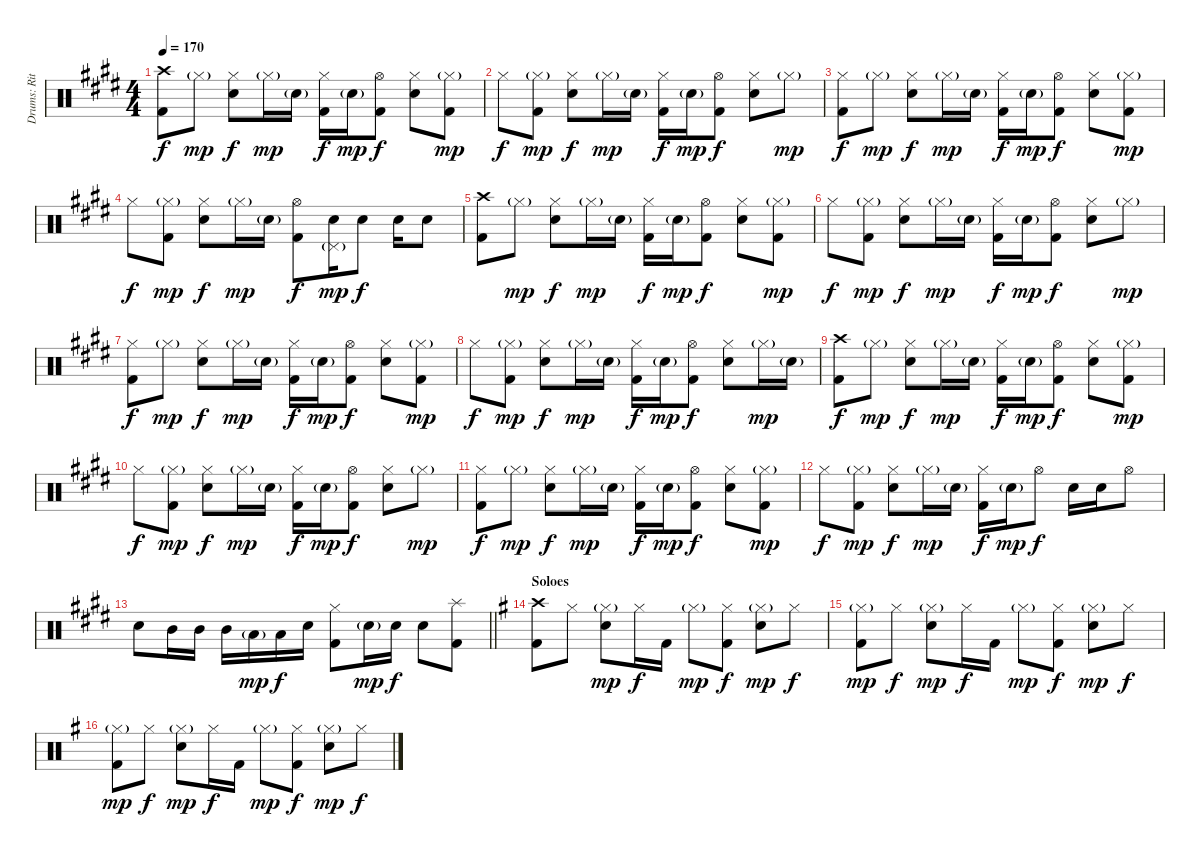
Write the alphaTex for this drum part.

\track ("Drums: Ritsu Tainaka" "Drums: Rit") {instrument percussion}
\staff {score}
\articulation defaults
\ts (4 4)
\tempo 170
\clef neutral
\ks e
("Crash high (hit)" "Kick (hit) 2").8{dy f} "Hi-Hat (closed)"{g}.8{dy mp} ("Hi-Hat (closed)" "Electric Snare (hit)").8{dy f} "Hi-Hat (closed)"{g}.16{dy mp} "Electric Snare (hit)"{g}.16 ("Hi-Hat (closed)" "Kick (hit) 2").16{dy f} "Electric Snare (hit)"{g}.16{dy mp} ("Hi-Hat (open)" "Kick (hit) 2").8{dy f} ("Hi-Hat (closed)" "Electric Snare (hit)").8 ("Hi-Hat (closed)"{g} "Kick (hit) 2").8{dy mp} |
"Hi-Hat (closed)".8{dy f} ("Hi-Hat (closed)"{g} "Kick (hit) 2").8{dy mp} ("Hi-Hat (closed)" "Electric Snare (hit)").8{dy f} "Hi-Hat (closed)"{g}.16{dy mp} "Electric Snare (hit)"{g}.16 ("Hi-Hat (closed)" "Kick (hit) 2").16{dy f} "Electric Snare (hit)"{g}.16{dy mp} ("Hi-Hat (open)" "Kick (hit) 2").8{dy f} ("Hi-Hat (closed)" "Electric Snare (hit)").8 "Hi-Hat (closed)"{g}.8{dy mp} |
("Hi-Hat (closed)" "Kick (hit) 2").8{dy f} "Hi-Hat (closed)"{g}.8{dy mp} ("Hi-Hat (closed)" "Electric Snare (hit)").8{dy f} "Hi-Hat (closed)"{g}.16{dy mp} "Electric Snare (hit)"{g}.16 ("Hi-Hat (closed)" "Kick (hit) 2").16{dy f} "Electric Snare (hit)"{g}.16{dy mp} ("Hi-Hat (open)" "Kick (hit) 2").8{dy f} ("Hi-Hat (closed)" "Electric Snare (hit)").8 ("Hi-Hat (closed)"{g} "Kick (hit) 2").8{dy mp} |
"Hi-Hat (closed)".8{dy f} ("Hi-Hat (closed)"{g} "Kick (hit) 2").8{dy mp} ("Hi-Hat (closed)" "Electric Snare (hit)").8{dy f} "Hi-Hat (closed)"{g}.16{dy mp} "Electric Snare (hit)"{g}.16 ("Hi-Hat (open)" "Kick (hit) 2").8{dy f} ("Pedal Hi-Hat (hit)"{g} "Electric Snare (hit)").16{dy mp} "Electric Snare (hit)".8{dy f} "Electric Snare (hit)".16 "Electric Snare (hit)".8 |
("Crash high (hit)" "Kick (hit) 2").8 "Hi-Hat (closed)"{g}.8{dy mp} ("Hi-Hat (closed)" "Electric Snare (hit)").8{dy f} "Hi-Hat (closed)"{g}.16{dy mp} "Electric Snare (hit)"{g}.16 ("Hi-Hat (closed)" "Kick (hit) 2").16{dy f} "Electric Snare (hit)"{g}.16{dy mp} ("Hi-Hat (open)" "Kick (hit) 2").8{dy f} ("Hi-Hat (closed)" "Electric Snare (hit)").8 ("Hi-Hat (closed)"{g} "Kick (hit) 2").8{dy mp} |
"Hi-Hat (closed)".8{dy f} ("Hi-Hat (closed)"{g} "Kick (hit) 2").8{dy mp} ("Hi-Hat (closed)" "Electric Snare (hit)").8{dy f} "Hi-Hat (closed)"{g}.16{dy mp} "Electric Snare (hit)"{g}.16 ("Hi-Hat (closed)" "Kick (hit) 2").16{dy f} "Electric Snare (hit)"{g}.16{dy mp} ("Hi-Hat (open)" "Kick (hit) 2").8{dy f} ("Hi-Hat (closed)" "Electric Snare (hit)").8 "Hi-Hat (closed)"{g}.8{dy mp} |
("Hi-Hat (closed)" "Kick (hit) 2").8{dy f} "Hi-Hat (closed)"{g}.8{dy mp} ("Hi-Hat (closed)" "Electric Snare (hit)").8{dy f} "Hi-Hat (closed)"{g}.16{dy mp} "Electric Snare (hit)"{g}.16 ("Hi-Hat (closed)" "Kick (hit) 2").16{dy f} "Electric Snare (hit)"{g}.16{dy mp} ("Hi-Hat (open)" "Kick (hit) 2").8{dy f} ("Hi-Hat (closed)" "Electric Snare (hit)").8 ("Hi-Hat (closed)"{g} "Kick (hit) 2").8{dy mp} |
"Hi-Hat (closed)".8{dy f} ("Hi-Hat (closed)"{g} "Kick (hit) 2").8{dy mp} ("Hi-Hat (closed)" "Electric Snare (hit)").8{dy f} "Hi-Hat (closed)"{g}.16{dy mp} "Electric Snare (hit)"{g}.16 ("Hi-Hat (closed)" "Kick (hit) 2").16{dy f} "Electric Snare (hit)"{g}.16{dy mp} ("Hi-Hat (open)" "Kick (hit) 2").8{dy f} ("Hi-Hat (closed)" "Electric Snare (hit)").8 "Hi-Hat (closed)"{g}.16{dy mp} "Electric Snare (hit)"{g}.16 |
("Crash high (hit)" "Kick (hit) 2").8{dy f} "Hi-Hat (closed)"{g}.8{dy mp} ("Hi-Hat (closed)" "Electric Snare (hit)").8{dy f} "Hi-Hat (closed)"{g}.16{dy mp} "Electric Snare (hit)"{g}.16 ("Hi-Hat (closed)" "Kick (hit) 2").16{dy f} "Electric Snare (hit)"{g}.16{dy mp} ("Hi-Hat (open)" "Kick (hit) 2").8{dy f} ("Hi-Hat (closed)" "Electric Snare (hit)").8 ("Hi-Hat (closed)"{g} "Kick (hit) 2").8{dy mp} |
"Hi-Hat (closed)".8{dy f} ("Hi-Hat (closed)"{g} "Kick (hit) 2").8{dy mp} ("Hi-Hat (closed)" "Electric Snare (hit)").8{dy f} "Hi-Hat (closed)"{g}.16{dy mp} "Electric Snare (hit)"{g}.16 ("Hi-Hat (closed)" "Kick (hit) 2").16{dy f} "Electric Snare (hit)"{g}.16{dy mp} ("Hi-Hat (open)" "Kick (hit) 2").8{dy f} ("Hi-Hat (closed)" "Electric Snare (hit)").8 "Hi-Hat (closed)"{g}.8{dy mp} |
("Hi-Hat (closed)" "Kick (hit) 2").8{dy f} "Hi-Hat (closed)"{g}.8{dy mp} ("Hi-Hat (closed)" "Electric Snare (hit)").8{dy f} "Hi-Hat (closed)"{g}.16{dy mp} "Electric Snare (hit)"{g}.16 ("Hi-Hat (closed)" "Kick (hit) 2").16{dy f} "Electric Snare (hit)"{g}.16{dy mp} ("Hi-Hat (open)" "Kick (hit) 2").8{dy f} ("Hi-Hat (closed)" "Electric Snare (hit)").8 ("Hi-Hat (closed)"{g} "Kick (hit) 2").8{dy mp} |
"Hi-Hat (closed)".8{dy f} ("Hi-Hat (closed)"{g} "Kick (hit) 2").8{dy mp} ("Hi-Hat (closed)" "Electric Snare (hit)").8{dy f} "Hi-Hat (closed)"{g}.16{dy mp} "Electric Snare (hit)"{g}.16 ("Hi-Hat (closed)" "Kick (hit) 2").16{dy f} "Electric Snare (hit)"{g}.16{dy mp} "Hi-Hat (open)".8{dy f} "Electric Snare (hit)".16 "Electric Snare (hit)".16 "Hi-Hat (open)".8 |
\barLineRight lightlight "Electric Snare (hit)".8 "Mid Tom (hit)".16 "Mid Tom (hit)".16 "Mid Tom (hit)".16 "Low Tom (hit)"{g}.16{dy mp} "Low Tom (hit)".16{dy f} "Electric Snare (hit)".16
("Hi-Hat (closed)" "Kick (hit) 2").8 "Electric Snare (hit)"{g}.16{dy mp} "Electric Snare (hit)".16{dy f} "Electric Snare (hit)".8 ("Splash (hit)" "Kick (hit) 2").8 |
\section ("" "Soloes")
\ks g
("Crash high (hit)" "Kick (hit) 2").8 "Hi-Hat (closed)".8 ("Hi-Hat (closed)"{g} "Electric Snare (hit)").8{dy mp} "Hi-Hat (closed)".16{dy f} "Kick (hit) 2".16 "Hi-Hat (closed)"{g}.8{dy mp} ("Hi-Hat (closed)" "Kick (hit) 2").8{dy f} ("Hi-Hat (closed)"{g} "Electric Snare (hit)").8{dy mp} "Hi-Hat (closed)".8{dy f} |
("Hi-Hat (closed)"{g} "Kick (hit) 2").8{dy mp} "Hi-Hat (closed)".8{dy f} ("Hi-Hat (closed)"{g} "Electric Snare (hit)").8{dy mp} "Hi-Hat (closed)".16{dy f} "Kick (hit) 2".16 "Hi-Hat (closed)"{g}.8{dy mp} ("Hi-Hat (closed)" "Kick (hit) 2").8{dy f} ("Hi-Hat (closed)"{g} "Electric Snare (hit)").8{dy mp} "Hi-Hat (closed)".8{dy f} |
("Hi-Hat (closed)"{g} "Kick (hit) 2").8{dy mp} "Hi-Hat (closed)".8{dy f} ("Hi-Hat (closed)"{g} "Electric Snare (hit)").8{dy mp} "Hi-Hat (closed)".16{dy f} "Kick (hit) 2".16 "Hi-Hat (closed)"{g}.8{dy mp} ("Hi-Hat (closed)" "Kick (hit) 2").8{dy f} ("Hi-Hat (closed)"{g} "Electric Snare (hit)").8{dy mp} "Hi-Hat (closed)".8{dy f}
